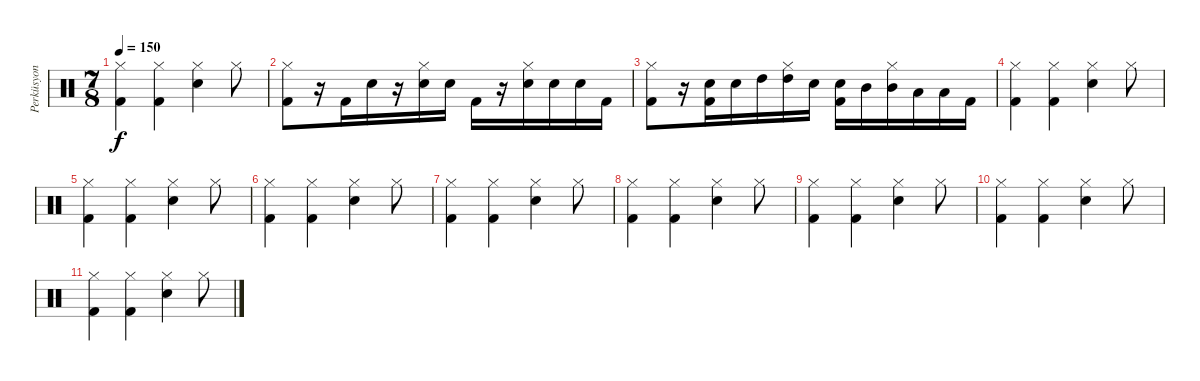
\track ("Perküsyon" "Perküsyon") {instrument percussion}
\staff {score}
\articulation defaults
\ts (7 8)
\tempo 150
\clef neutral
\ks c
("Hi-Hat (closed)" "Kick (hit) 2").4{dy f} ("Hi-Hat (closed)" "Kick (hit) 2").4 ("Hi-Hat (closed)" "Electric Snare (hit)").4 "Hi-Hat (closed)".8 |
("Hi-Hat (closed)" "Kick (hit) 2").8 r.16 "Kick (hit) 2".16 "Electric Snare (hit)".16 r.16 ("Hi-Hat (closed)" "Electric Snare (hit)").16 "Electric Snare (hit)".16 "Kick (hit) 2".16 r.16 ("Hi-Hat (closed)" "Electric Snare (hit)").16 "Electric Snare (hit)".16 "Electric Snare (hit)".16 "Kick (hit) 2".16 |
("Hi-Hat (closed)" "Kick (hit) 2").8 r.16 ("Electric Snare (hit)" "Kick (hit) 2").16 "Electric Snare (hit)".16 "High Tom (hit)".16 ("Hi-Hat (closed)" "High Tom (hit)").16 "Electric Snare (hit)".16 ("Electric Snare (hit)" "Kick (hit) 2").16 "Mid Tom (hit)".16 ("Hi-Hat (closed)" "Mid Tom (hit)").16 "Low Tom (hit)".16 "Low Tom (hit)".16 "Kick (hit) 2".16 |
("Hi-Hat (closed)" "Kick (hit) 2").4 ("Hi-Hat (closed)" "Kick (hit) 2").4 ("Hi-Hat (closed)" "Electric Snare (hit)").4 "Hi-Hat (closed)".8 |
("Hi-Hat (closed)" "Kick (hit) 2").4 ("Hi-Hat (closed)" "Kick (hit) 2").4 ("Hi-Hat (closed)" "Electric Snare (hit)").4 "Hi-Hat (closed)".8 |
("Hi-Hat (closed)" "Kick (hit) 2").4 ("Hi-Hat (closed)" "Kick (hit) 2").4 ("Hi-Hat (closed)" "Electric Snare (hit)").4 "Hi-Hat (closed)".8 |
("Hi-Hat (closed)" "Kick (hit) 2").4 ("Hi-Hat (closed)" "Kick (hit) 2").4 ("Hi-Hat (closed)" "Electric Snare (hit)").4 "Hi-Hat (closed)".8 |
("Hi-Hat (closed)" "Kick (hit) 2").4 ("Hi-Hat (closed)" "Kick (hit) 2").4 ("Hi-Hat (closed)" "Electric Snare (hit)").4 "Hi-Hat (closed)".8 |
("Hi-Hat (closed)" "Kick (hit) 2").4 ("Hi-Hat (closed)" "Kick (hit) 2").4 ("Hi-Hat (closed)" "Electric Snare (hit)").4 "Hi-Hat (closed)".8 |
("Hi-Hat (closed)" "Kick (hit) 2").4 ("Hi-Hat (closed)" "Kick (hit) 2").4 ("Hi-Hat (closed)" "Electric Snare (hit)").4 "Hi-Hat (closed)".8 |
("Hi-Hat (closed)" "Kick (hit) 2").4 ("Hi-Hat (closed)" "Kick (hit) 2").4 ("Hi-Hat (closed)" "Electric Snare (hit)").4 "Hi-Hat (closed)".8
